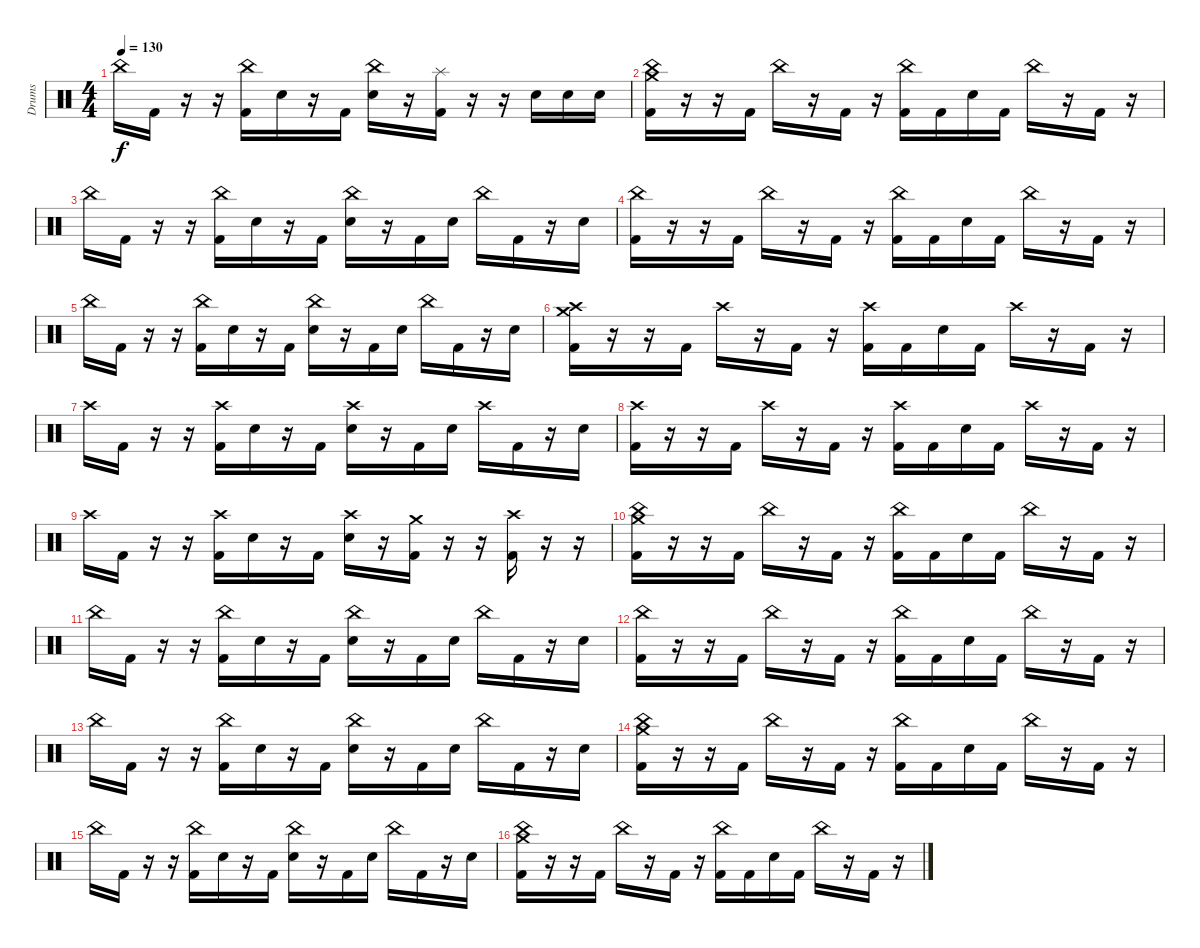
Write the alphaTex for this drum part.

\track ("Drums" "Drums") {instrument percussion}
\staff {score}
\articulation defaults
\ts (4 4)
\tempo 130
\clef neutral
\ks c "China (hit)".16{dy f} "Kick (hit) 2".16
r.16 r.16 ("China (hit)" "Kick (hit) 2").16 "Snare (hit) 2".16 r.16 "Kick (hit) 2".16 ("China (hit)" "Snare (hit) 2").16 r.16 ("Splash (hit)" "Kick (hit) 2").16 r.16 r.16 "Snare (hit) 2".16 "Snare (hit) 2".16 "Snare (hit) 2".16 |
("China (hit)" "Crash medium (hit)" "Kick (hit) 2").16 r.16 r.16 "Kick (hit) 2".16 "China (hit)".16 r.16 "Kick (hit) 2".16 r.16 ("China (hit)" "Kick (hit) 2").16 "Kick (hit) 2".16 "Snare (hit) 2".16 "Kick (hit) 2".16 "China (hit)".16 r.16 "Kick (hit) 2".16 r.16 |
"China (hit)".16 "Kick (hit) 2".16 r.16 r.16 ("China (hit)" "Kick (hit) 2").16 "Snare (hit) 2".16 r.16 "Kick (hit) 2".16 ("China (hit)" "Snare (hit) 2").16 r.16 "Kick (hit) 2".16 "Snare (hit) 2".16 "China (hit)".16 "Kick (hit) 2".16 r.16 "Snare (hit) 2".16 |
("China (hit)" "Kick (hit) 2").16 r.16 r.16 "Kick (hit) 2".16 "China (hit)".16 r.16 "Kick (hit) 2".16 r.16 ("China (hit)" "Kick (hit) 2").16 "Kick (hit) 2".16 "Snare (hit) 2".16 "Kick (hit) 2".16 "China (hit)".16 r.16 "Kick (hit) 2".16 r.16 |
"China (hit)".16 "Kick (hit) 2".16 r.16 r.16 ("China (hit)" "Kick (hit) 2").16 "Snare (hit) 2".16 r.16 "Kick (hit) 2".16 ("China (hit)" "Snare (hit) 2").16 r.16 "Kick (hit) 2".16 "Snare (hit) 2".16 "China (hit)".16 "Kick (hit) 2".16 r.16 "Snare (hit) 2".16 |
("Crash high (hit)" "Crash medium (hit)" "Kick (hit) 2").16 r.16 r.16 "Kick (hit) 2".16 "Crash high (hit)".16 r.16 "Kick (hit) 2".16 r.16 ("Crash high (hit)" "Kick (hit) 2").16 "Kick (hit) 2".16 "Snare (hit) 2".16 "Kick (hit) 2".16 "Crash high (hit)".16 r.16 "Kick (hit) 2".16 r.16 |
"Crash high (hit)".16 "Kick (hit) 2".16 r.16 r.16 ("Crash high (hit)" "Kick (hit) 2").16 "Snare (hit) 2".16 r.16 "Kick (hit) 2".16 ("Crash high (hit)" "Snare (hit) 2").16 r.16 "Kick (hit) 2".16 "Snare (hit) 2".16 "Crash high (hit)".16 "Kick (hit) 2".16 r.16 "Snare (hit) 2".16 |
("Crash high (hit)" "Kick (hit) 2").16 r.16 r.16 "Kick (hit) 2".16 "Crash high (hit)".16 r.16 "Kick (hit) 2".16 r.16 ("Crash high (hit)" "Kick (hit) 2").16 "Kick (hit) 2".16 "Snare (hit) 2".16 "Kick (hit) 2".16 "Crash high (hit)".16 r.16 "Kick (hit) 2".16 r.16 |
"Crash high (hit)".16 "Kick (hit) 2".16 r.16 r.16 ("Crash high (hit)" "Kick (hit) 2").16 "Snare (hit) 2".16 r.16 "Kick (hit) 2".16 ("Crash high (hit)" "Snare (hit) 2").16 r.16 ("Crash medium (hit)" "Kick (hit) 2").16 r.16 r.16 ("Crash high (hit)" "Kick (hit) 2").16 r.16 r.16 |
("China (hit)" "Crash medium (hit)" "Kick (hit) 2").16 r.16 r.16 "Kick (hit) 2".16 "China (hit)".16 r.16 "Kick (hit) 2".16 r.16 ("China (hit)" "Kick (hit) 2").16 "Kick (hit) 2".16 "Snare (hit) 2".16 "Kick (hit) 2".16 "China (hit)".16 r.16 "Kick (hit) 2".16 r.16 |
"China (hit)".16 "Kick (hit) 2".16 r.16 r.16 ("China (hit)" "Kick (hit) 2").16 "Snare (hit) 2".16 r.16 "Kick (hit) 2".16 ("China (hit)" "Snare (hit) 2").16 r.16 "Kick (hit) 2".16 "Snare (hit) 2".16 "China (hit)".16 "Kick (hit) 2".16 r.16 "Snare (hit) 2".16 |
("China (hit)" "Kick (hit) 2").16 r.16 r.16 "Kick (hit) 2".16 "China (hit)".16 r.16 "Kick (hit) 2".16 r.16 ("China (hit)" "Kick (hit) 2").16 "Kick (hit) 2".16 "Snare (hit) 2".16 "Kick (hit) 2".16 "China (hit)".16 r.16 "Kick (hit) 2".16 r.16 |
"China (hit)".16 "Kick (hit) 2".16 r.16 r.16 ("China (hit)" "Kick (hit) 2").16 "Snare (hit) 2".16 r.16 "Kick (hit) 2".16 ("China (hit)" "Snare (hit) 2").16 r.16 "Kick (hit) 2".16 "Snare (hit) 2".16 "China (hit)".16 "Kick (hit) 2".16 r.16 "Snare (hit) 2".16 |
("China (hit)" "Crash medium (hit)" "Kick (hit) 2").16 r.16 r.16 "Kick (hit) 2".16 "China (hit)".16 r.16 "Kick (hit) 2".16 r.16 ("China (hit)" "Kick (hit) 2").16 "Kick (hit) 2".16 "Snare (hit) 2".16 "Kick (hit) 2".16 "China (hit)".16 r.16 "Kick (hit) 2".16 r.16 |
"China (hit)".16 "Kick (hit) 2".16 r.16 r.16 ("China (hit)" "Kick (hit) 2").16 "Snare (hit) 2".16 r.16 "Kick (hit) 2".16 ("China (hit)" "Snare (hit) 2").16 r.16 "Kick (hit) 2".16 "Snare (hit) 2".16 "China (hit)".16 "Kick (hit) 2".16 r.16 "Snare (hit) 2".16 |
("China (hit)" "Crash medium (hit)" "Kick (hit) 2").16 r.16 r.16 "Kick (hit) 2".16 "China (hit)".16 r.16 "Kick (hit) 2".16 r.16 ("China (hit)" "Kick (hit) 2").16 "Kick (hit) 2".16 "Snare (hit) 2".16 "Kick (hit) 2".16 "China (hit)".16 r.16 "Kick (hit) 2".16 r.16
